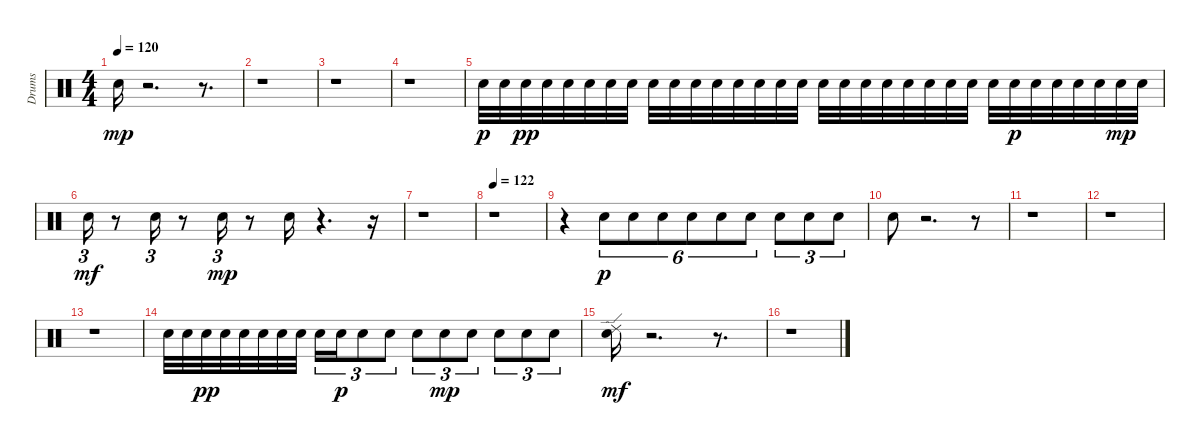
\track ("Drums" "Drums") {instrument percussion}
\staff {score}
\articulation defaults
\ts (4 4)
\tempo 120
\clef neutral
\ks c "Electric Snare (hit)".16{dy mp}
r.2{d} r.8{d} |
r.1 |
r.1 |
r.1 |
"Electric Snare (hit)".32{dy p} "Electric Snare (hit)".32 "Electric Snare (hit)".32{dy pp} "Electric Snare (hit)".32 "Electric Snare (hit)".32 "Electric Snare (hit)".32 "Electric Snare (hit)".32 "Electric Snare (hit)".32 "Electric Snare (hit)".32 "Electric Snare (hit)".32 "Electric Snare (hit)".32 "Electric Snare (hit)".32 "Electric Snare (hit)".32 "Electric Snare (hit)".32 "Electric Snare (hit)".32 "Electric Snare (hit)".32 "Electric Snare (hit)".32 "Electric Snare (hit)".32 "Electric Snare (hit)".32 "Electric Snare (hit)".32 "Electric Snare (hit)".32 "Electric Snare (hit)".32 "Electric Snare (hit)".32 "Electric Snare (hit)".32 "Electric Snare (hit)".32 "Electric Snare (hit)".32{dy p} "Electric Snare (hit)".32 "Electric Snare (hit)".32 "Electric Snare (hit)".32 "Electric Snare (hit)".32 "Electric Snare (hit)".32{dy mp} "Electric Snare (hit)".32 |
"Electric Snare (hit)".16{tu (3 2) dy mf} r.8 "Electric Snare (hit)".16{tu (3 2)} r.8 "Electric Snare (hit)".16{tu (3 2) dy mp} r.8 "Electric Snare (hit)".16 r.4{d} r.16 |
r.1 |
\tempo 122
r.1 |
r.4 "Electric Snare (hit)".8{tu (6 4) dy p} "Electric Snare (hit)".8{tu (6 4)} "Electric Snare (hit)".8{tu (6 4)} "Electric Snare (hit)".8{tu (6 4)} "Electric Snare (hit)".8{tu (6 4)} "Electric Snare (hit)".8{tu (6 4)} "Electric Snare (hit)".8{tu (3 2)} "Electric Snare (hit)".8{tu (3 2)} "Electric Snare (hit)".8{tu (3 2)} |
"Electric Snare (hit)".8 r.2{d} r.8 |
r.1 |
r.1 |
r.1 |
"Electric Snare (hit)".32 "Electric Snare (hit)".32 "Electric Snare (hit)".32{dy pp} "Electric Snare (hit)".32 "Electric Snare (hit)".32 "Electric Snare (hit)".32 "Electric Snare (hit)".32 "Electric Snare (hit)".32 "Electric Snare (hit)".16{tu (3 2)} "Electric Snare (hit)".16{tu (3 2) dy p} "Electric Snare (hit)".8{tu (3 2)} "Electric Snare (hit)".8{tu (3 2)} "Electric Snare (hit)".8{tu (3 2)} "Electric Snare (hit)".8{tu (3 2) dy mp} "Electric Snare (hit)".8{tu (3 2)} "Electric Snare (hit)".8{tu (3 2)} "Electric Snare (hit)".8{tu (3 2)} "Electric Snare (hit)".8{tu (3 2)} |
("Ride (edge) 2" "Electric Snare (hit)").16{dy mf} r.2{d} r.8{d} |
r.1
